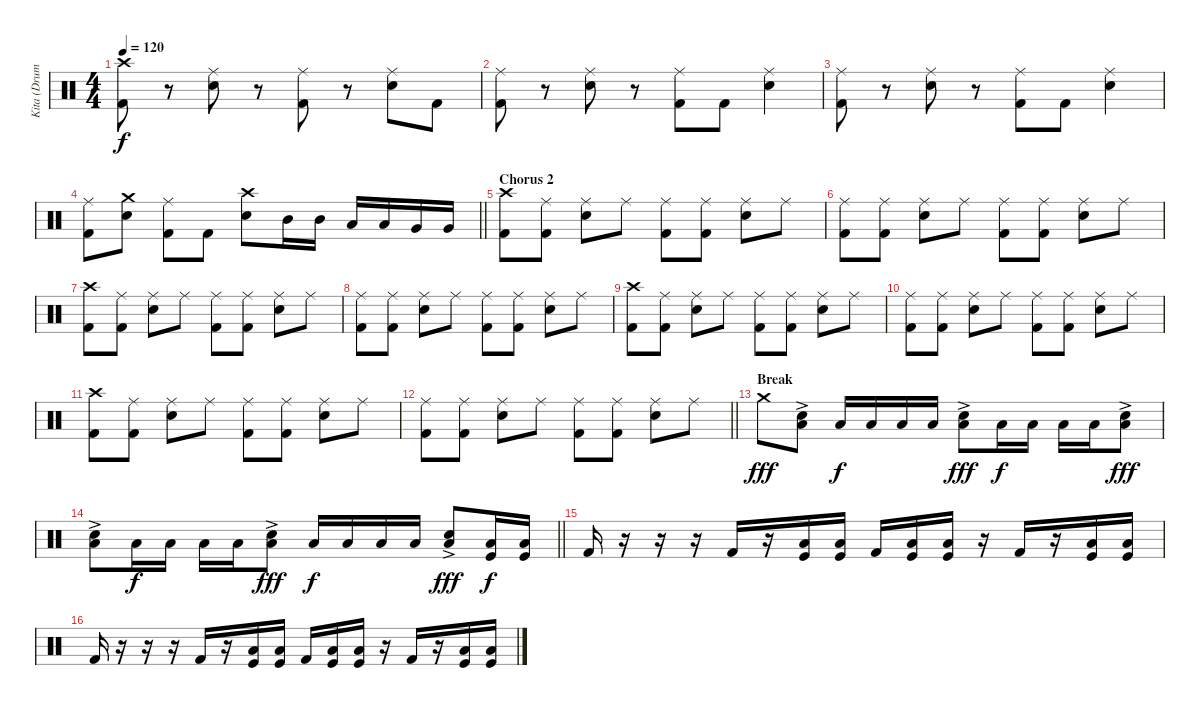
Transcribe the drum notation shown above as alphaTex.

\track ("Kita (Drums)" "Kita (Drum") {instrument percussion}
\staff {score}
\articulation defaults
\ts (4 4)
\tempo 120
\clef neutral
\ks c
("Crash high (hit)" "Kick (hit) 2").8{dy f} r.8 ("Ride (middle)" "Snare (hit) 2").8 r.8 ("Ride (middle)" "Kick (hit) 2").8 r.8 ("Ride (middle)" "Snare (hit) 2").8 "Kick (hit) 2".8 |
("Ride (middle)" "Kick (hit) 2").8 r.8 ("Ride (middle)" "Snare (hit) 2").8 r.8 ("Ride (middle)" "Kick (hit) 2").8 "Kick (hit) 2".8 ("Ride (middle)" "Snare (hit) 2").4 |
("Ride (middle)" "Kick (hit) 2").8 r.8 ("Ride (middle)" "Snare (hit) 2").8 r.8 ("Ride (middle)" "Kick (hit) 2").8 "Kick (hit) 2".8 ("Ride (middle)" "Snare (hit) 2").4 |
\barLineRight lightlight
("Ride (middle)" "Kick (hit) 2").8 ("Crash medium (hit)" "Snare (hit) 2").8 ("Ride (middle)" "Kick (hit) 2").8 "Kick (hit) 2".8 ("Crash high (hit)" "Snare (hit) 2").8 "Mid Tom (hit)".16 "Mid Tom (hit)".16 "Low Tom (hit)".16 "Low Tom (hit)".16 "Very Low Tom (hit)".16 "Very Low Tom (hit)".16 |
\section ("" "Chorus 2")
("Crash high (hit)" "Kick (hit) 2").8 ("Ride (middle)" "Kick (hit) 2").8 ("Ride (middle)" "Snare (hit) 2").8 "Ride (middle)".8 ("Ride (middle)" "Kick (hit) 2").8 ("Ride (middle)" "Kick (hit) 2").8 ("Ride (middle)" "Snare (hit) 2").8 "Ride (middle)".8 |
("Ride (middle)" "Kick (hit) 2").8 ("Ride (middle)" "Kick (hit) 2").8 ("Ride (middle)" "Snare (hit) 2").8 "Ride (middle)".8 ("Ride (middle)" "Kick (hit) 2").8 ("Ride (middle)" "Kick (hit) 2").8 ("Ride (middle)" "Snare (hit) 2").8 "Ride (middle)".8 |
("Crash high (hit)" "Kick (hit) 2").8 ("Ride (middle)" "Kick (hit) 2").8 ("Ride (middle)" "Snare (hit) 2").8 "Ride (middle)".8 ("Ride (middle)" "Kick (hit) 2").8 ("Ride (middle)" "Kick (hit) 2").8 ("Ride (middle)" "Snare (hit) 2").8 "Ride (middle)".8 |
("Ride (middle)" "Kick (hit) 2").8 ("Ride (middle)" "Kick (hit) 2").8 ("Ride (middle)" "Snare (hit) 2").8 "Ride (middle)".8 ("Ride (middle)" "Kick (hit) 2").8 ("Ride (middle)" "Kick (hit) 2").8 ("Ride (middle)" "Snare (hit) 2").8 "Ride (middle)".8 |
("Crash high (hit)" "Kick (hit) 2").8 ("Ride (middle)" "Kick (hit) 2").8 ("Ride (middle)" "Snare (hit) 2").8 "Ride (middle)".8 ("Ride (middle)" "Kick (hit) 2").8 ("Ride (middle)" "Kick (hit) 2").8 ("Ride (middle)" "Snare (hit) 2").8 "Ride (middle)".8 |
("Ride (middle)" "Kick (hit) 2").8 ("Ride (middle)" "Kick (hit) 2").8 ("Ride (middle)" "Snare (hit) 2").8 "Ride (middle)".8 ("Ride (middle)" "Kick (hit) 2").8 ("Ride (middle)" "Kick (hit) 2").8 ("Ride (middle)" "Snare (hit) 2").8 "Ride (middle)".8 |
("Crash high (hit)" "Kick (hit) 2").8 ("Ride (middle)" "Kick (hit) 2").8 ("Ride (middle)" "Snare (hit) 2").8 "Ride (middle)".8 ("Ride (middle)" "Kick (hit) 2").8 ("Ride (middle)" "Kick (hit) 2").8 ("Ride (middle)" "Snare (hit) 2").8 "Ride (middle)".8 |
\barLineRight lightlight
("Ride (middle)" "Kick (hit) 2").8 ("Ride (middle)" "Kick (hit) 2").8 ("Ride (middle)" "Snare (hit) 2").8 "Ride (middle)".8 ("Ride (middle)" "Kick (hit) 2").8 ("Ride (middle)" "Kick (hit) 2").8 ("Ride (middle)" "Snare (hit) 2").8 "Ride (middle)".8 |
\section ("" "Break")
"Crash medium (hit)".8{dy fff volume 16} ("Snare (hit) 2"{ac} "Low Floor Tom (hit)"{ac}).8 "Low Floor Tom (hit)".16{dy f} "Low Floor Tom (hit)".16 "Low Floor Tom (hit)".16 "Low Floor Tom (hit)".16 ("Snare (hit) 2"{ac} "Low Floor Tom (hit)"{ac}).8{dy fff} "Low Floor Tom (hit)".16{dy f} "Low Floor Tom (hit)".16 "Low Floor Tom (hit)".16 "Low Floor Tom (hit)".16 ("Snare (hit) 2"{ac} "Low Floor Tom (hit)"{ac}).8{dy fff} |
\barLineRight lightlight
("Snare (hit) 2"{ac} "Low Floor Tom (hit)").8 "Low Floor Tom (hit)".16{dy f} "Low Floor Tom (hit)".16 "Low Floor Tom (hit)".16 "Low Floor Tom (hit)".16 ("Snare (hit) 2"{ac} "Low Floor Tom (hit)"{ac}).8{dy fff} "Low Floor Tom (hit)".16{dy f} "Low Floor Tom (hit)".16 "Low Floor Tom (hit)".16 "Low Floor Tom (hit)".16 ("Snare (hit) 2"{ac} "Low Floor Tom (hit)"{ac}).8{dy fff} ("Kick (hit)" "Low Floor Tom (hit)").16{dy f} ("Kick (hit)" "Low Floor Tom (hit)").16 |
"Kick (hit) 2".16{volume 14} r.16 r.16 r.16 "Kick (hit) 2".16 r.16 ("Kick (hit)" "Low Floor Tom (hit)").16 ("Kick (hit)" "Low Floor Tom (hit)").16 "Kick (hit) 2".16 ("Kick (hit)" "Low Floor Tom (hit)").16 ("Kick (hit)" "Low Floor Tom (hit)").16 r.16 "Kick (hit) 2".16 r.16 ("Kick (hit)" "Low Floor Tom (hit)").16 ("Kick (hit)" "Low Floor Tom (hit)").16 |
"Kick (hit) 2".16 r.16 r.16 r.16 "Kick (hit) 2".16 r.16 ("Kick (hit)" "Low Floor Tom (hit)").16 ("Kick (hit)" "Low Floor Tom (hit)").16 "Kick (hit) 2".16 ("Kick (hit)" "Low Floor Tom (hit)").16 ("Kick (hit)" "Low Floor Tom (hit)").16 r.16 "Kick (hit) 2".16 r.16 ("Kick (hit)" "Low Floor Tom (hit)").16 ("Kick (hit)" "Low Floor Tom (hit)").16
